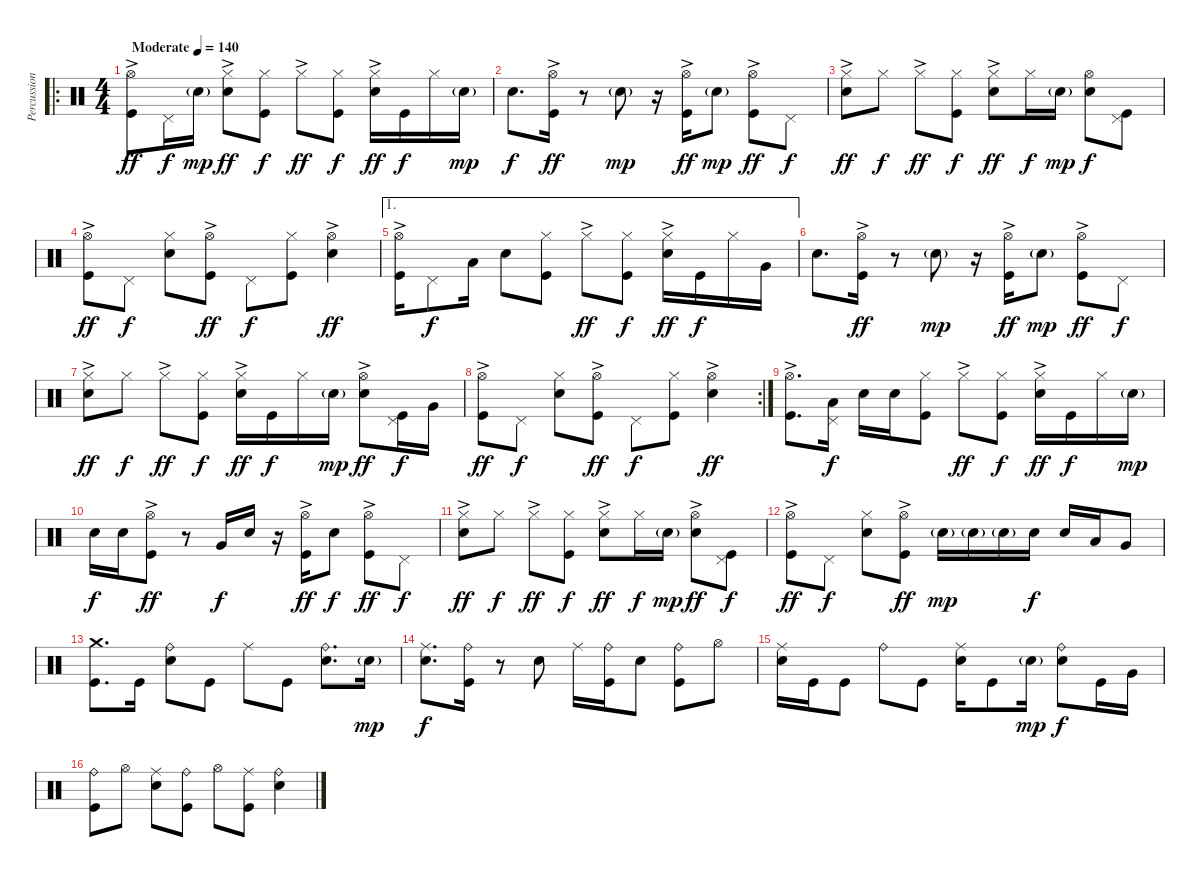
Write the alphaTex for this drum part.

\track ("Percussion" "Percussion") {instrument percussion}
\staff {score}
\articulation defaults
\ro
\ts (4 4)
\tempo (140 "Moderate")
\clef neutral
\ks c
("Hi-Hat (open)"{ac} "Kick (hit)").8{dy ff} "Pedal Hi-Hat (hit)".16{dy f} "Electric Snare (hit)"{g}.16{dy mp} ("Hi-Hat (closed)"{ac} "Electric Snare (hit)").8{dy ff} ("Hi-Hat (closed)" "Kick (hit)").8{dy f} "Hi-Hat (closed)"{ac}.8{dy ff} ("Hi-Hat (closed)" "Kick (hit)").8{dy f} ("Hi-Hat (closed)"{ac} "Electric Snare (hit)").16{dy ff} "Kick (hit)".16{dy f} "Hi-Hat (closed)".16 "Electric Snare (hit)"{g}.16{dy mp} |
"Electric Snare (hit)".8{d dy f} ("Hi-Hat (open)"{ac} "Kick (hit)").16{dy ff} r.8 "Electric Snare (hit)"{g}.8{dy mp} r.16 ("Hi-Hat (open)"{ac} "Kick (hit)").16{dy ff} "Electric Snare (hit)"{g}.8{dy mp} ("Hi-Hat (open)"{ac} "Kick (hit)").8{dy ff} "Pedal Hi-Hat (hit)".8{dy f} |
("Hi-Hat (closed)"{ac} "Electric Snare (hit)").8{dy ff} "Hi-Hat (closed)".8{dy f} "Hi-Hat (closed)"{ac}.8{dy ff} ("Hi-Hat (closed)" "Kick (hit)").8{dy f} ("Hi-Hat (closed)"{ac} "Electric Snare (hit)").8{dy ff} "Hi-Hat (closed)".16{dy f} "Electric Snare (hit)"{g}.16{dy mp} ("Hi-Hat (open)" "Electric Snare (hit)").8{dy f} ("Kick (hit)" "Pedal Hi-Hat (hit)").8 |
("Hi-Hat (open)"{ac} "Kick (hit)").8{dy ff} "Pedal Hi-Hat (hit)".8{dy f} ("Hi-Hat (closed)" "Electric Snare (hit)").8 ("Hi-Hat (open)"{ac} "Kick (hit)").8{dy ff} "Pedal Hi-Hat (hit)".8{dy f} ("Hi-Hat (closed)" "Kick (hit)").8 ("Hi-Hat (open)"{ac} "Electric Snare (hit)").4{dy ff} |
\ae 1
("Hi-Hat (open)"{ac} "Kick (hit)").16 "Pedal Hi-Hat (hit)".8{dy f} "Low Tom (hit)".16 "Electric Snare (hit)".8 ("Hi-Hat (closed)" "Kick (hit)").8 "Hi-Hat (closed)"{ac}.8{dy ff} ("Hi-Hat (closed)" "Kick (hit)").8{dy f} ("Hi-Hat (closed)"{ac} "Electric Snare (hit)").16{dy ff} "Kick (hit)".16{dy f} "Hi-Hat (closed)".16 "Very Low Tom (hit)".16 |
"Electric Snare (hit)".8{d} ("Hi-Hat (open)"{ac} "Kick (hit)").16{dy ff} r.8 "Electric Snare (hit)"{g}.8{dy mp} r.16 ("Hi-Hat (open)"{ac} "Kick (hit)").16{dy ff} "Electric Snare (hit)"{g}.8{dy mp} ("Hi-Hat (open)"{ac} "Kick (hit)").8{dy ff} "Pedal Hi-Hat (hit)".8{dy f} |
("Hi-Hat (closed)"{ac} "Electric Snare (hit)").8{dy ff} "Hi-Hat (closed)".8{dy f} "Hi-Hat (closed)"{ac}.8{dy ff} ("Hi-Hat (closed)" "Kick (hit)").8{dy f} ("Hi-Hat (closed)"{ac} "Electric Snare (hit)").16{dy ff} "Kick (hit)".16{dy f} "Hi-Hat (closed)".16 "Electric Snare (hit)"{g}.16{dy mp} ("Hi-Hat (open)"{ac} "Electric Snare (hit)").8{dy ff} ("Kick (hit)" "Pedal Hi-Hat (hit)").16{dy f} "Very Low Tom (hit)".16 |
\rc 2
("Hi-Hat (open)"{ac} "Kick (hit)").8{dy ff} "Pedal Hi-Hat (hit)".8{dy f} ("Hi-Hat (closed)" "Electric Snare (hit)").8 ("Hi-Hat (open)"{ac} "Kick (hit)").8{dy ff} "Pedal Hi-Hat (hit)".8{dy f} ("Hi-Hat (closed)" "Kick (hit)").8 ("Hi-Hat (open)"{ac} "Electric Snare (hit)").4{dy ff} |
("Hi-Hat (open)"{ac} "Kick (hit)").8{d} ("Low Tom (hit)" "Pedal Hi-Hat (hit)").16{dy f} "Electric Snare (hit)".16 "Electric Snare (hit)".16 ("Hi-Hat (closed)" "Kick (hit)").8 "Hi-Hat (closed)"{ac}.8{dy ff} ("Hi-Hat (closed)" "Kick (hit)").8{dy f} ("Hi-Hat (closed)"{ac} "Electric Snare (hit)").16{dy ff} "Kick (hit)".16{dy f} "Hi-Hat (closed)".16 "Electric Snare (hit)"{g}.16{dy mp} |
"Electric Snare (hit)".16{dy f} "Electric Snare (hit)".16 ("Hi-Hat (open)"{ac} "Kick (hit)").8{dy ff} r.8 "Very Low Tom (hit)".16{dy f} "Electric Snare (hit)".16 r.16 ("Hi-Hat (open)"{ac} "Kick (hit)").16{dy ff} "Electric Snare (hit)".8{dy f} ("Hi-Hat (open)"{ac} "Kick (hit)").8{dy ff} "Pedal Hi-Hat (hit)".8{dy f} |
("Hi-Hat (closed)"{ac} "Electric Snare (hit)").8{dy ff} "Hi-Hat (closed)".8{dy f} "Hi-Hat (closed)"{ac}.8{dy ff} ("Hi-Hat (closed)" "Kick (hit)").8{dy f} ("Hi-Hat (closed)"{ac} "Electric Snare (hit)").8{dy ff} "Hi-Hat (closed)".16{dy f} "Electric Snare (hit)"{g}.16{dy mp} ("Hi-Hat (open)"{ac} "Electric Snare (hit)").8{dy ff} ("Kick (hit)" "Pedal Hi-Hat (hit)").8{dy f} |
("Hi-Hat (open)"{ac} "Kick (hit)").8{dy ff} "Pedal Hi-Hat (hit)".8{dy f} ("Hi-Hat (closed)" "Electric Snare (hit)").8 ("Hi-Hat (open)"{ac} "Kick (hit)").8{dy ff} "Electric Snare (hit)"{g}.16{dy mp} "Electric Snare (hit)"{g}.16 "Electric Snare (hit)"{g}.16 "Electric Snare (hit)".16{dy f} "Electric Snare (hit)".16 "Low Tom (hit)".16 "Very Low Tom (hit)".8 |
("Crash medium (hit)" "Kick (hit)").8{d} "Kick (hit)".16 ("Ride (bell)" "Electric Snare (hit)").8 "Kick (hit)".8 "Ride (middle)".8 "Kick (hit)".8 ("Ride (bell)" "Electric Snare (hit)").8{d} "Electric Snare (hit)"{g}.16{dy mp} |
("Ride (middle)" "Electric Snare (hit)").8{d dy f} ("Ride (bell)" "Kick (hit)").16 r.8 "Electric Snare (hit)".8 "Ride (middle)".16 ("Ride (bell)" "Kick (hit)").16 "Electric Snare (hit)".8 ("Ride (bell)" "Kick (hit)").8 "Hi-Hat (open)".8 |
("Ride (middle)" "Electric Snare (hit)").16 "Kick (hit)".16 "Kick (hit)".8 "Ride (bell)".8 "Kick (hit)".8 ("Ride (middle)" "Electric Snare (hit)").16 "Kick (hit)".8 "Electric Snare (hit)"{g}.16{dy mp} ("Ride (bell)" "Electric Snare (hit)").8{dy f} "Kick (hit)".16 "Very Low Tom (hit)".16 |
("Ride (bell)" "Kick (hit)").8 "Hi-Hat (open)".8 ("Ride (middle)" "Electric Snare (hit)").8 ("Ride (bell)" "Kick (hit)").8 "Hi-Hat (open)".8 ("Ride (middle)" "Kick (hit)").8 ("Ride (bell)" "Electric Snare (hit)").4
